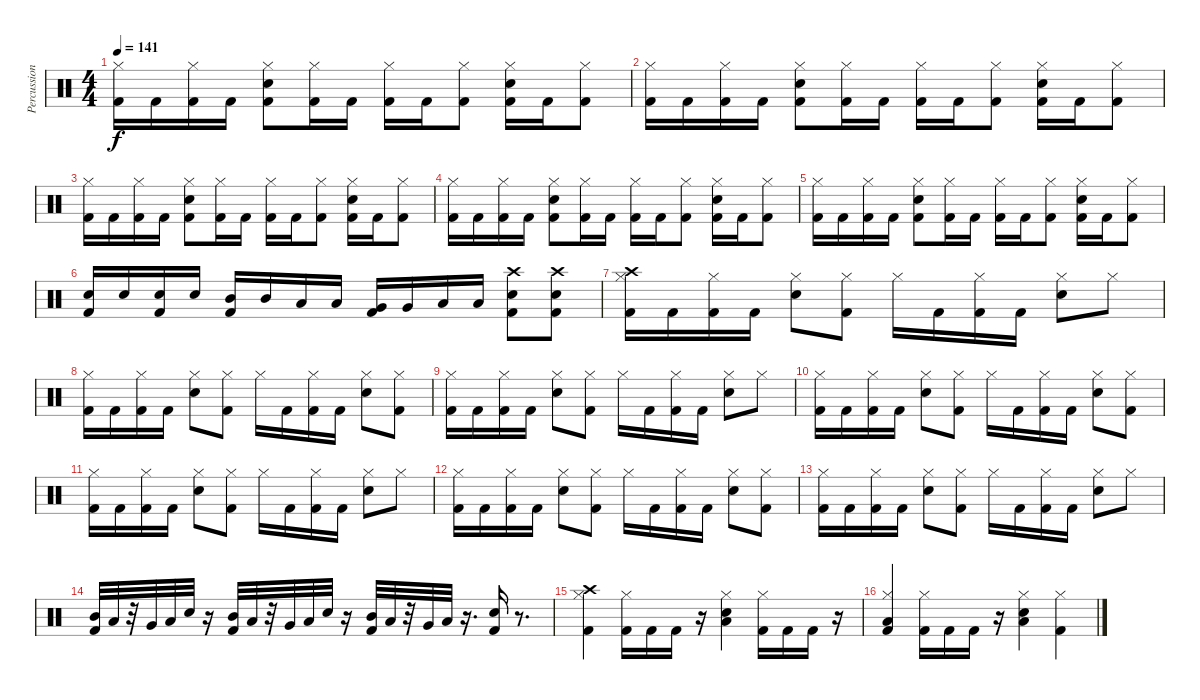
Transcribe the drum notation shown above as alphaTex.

\track ("Percussion" "Percussion") {instrument percussion}
\staff {score}
\articulation defaults
\ts (4 4)
\tempo 141
\clef neutral
\ks c
("Kick (hit) 2" "Hi-Hat (closed)").16{dy f} "Kick (hit) 2".16 ("Kick (hit) 2" "Hi-Hat (closed)").16 "Kick (hit) 2".16 ("Kick (hit) 2" "Snare (hit) 2" "Hi-Hat (closed)").8 ("Kick (hit) 2" "Hi-Hat (closed)").16 "Kick (hit) 2".16 ("Kick (hit) 2" "Hi-Hat (closed)").16 "Kick (hit) 2".16 ("Kick (hit) 2" "Hi-Hat (closed)").8 ("Kick (hit) 2" "Snare (hit) 2" "Hi-Hat (closed)").16 "Kick (hit) 2".16 ("Kick (hit) 2" "Hi-Hat (closed)").8 |
("Kick (hit) 2" "Hi-Hat (closed)").16 "Kick (hit) 2".16 ("Kick (hit) 2" "Hi-Hat (closed)").16 "Kick (hit) 2".16 ("Kick (hit) 2" "Snare (hit) 2" "Hi-Hat (closed)").8 ("Kick (hit) 2" "Hi-Hat (closed)").16 "Kick (hit) 2".16 ("Kick (hit) 2" "Hi-Hat (closed)").16 "Kick (hit) 2".16 ("Kick (hit) 2" "Hi-Hat (closed)").8 ("Kick (hit) 2" "Snare (hit) 2" "Hi-Hat (closed)").16 "Kick (hit) 2".16 ("Kick (hit) 2" "Hi-Hat (closed)").8 |
("Kick (hit) 2" "Hi-Hat (closed)").16 "Kick (hit) 2".16 ("Kick (hit) 2" "Hi-Hat (closed)").16 "Kick (hit) 2".16 ("Kick (hit) 2" "Snare (hit) 2" "Hi-Hat (closed)").8 ("Kick (hit) 2" "Hi-Hat (closed)").16 "Kick (hit) 2".16 ("Kick (hit) 2" "Hi-Hat (closed)").16 "Kick (hit) 2".16 ("Kick (hit) 2" "Hi-Hat (closed)").8 ("Kick (hit) 2" "Snare (hit) 2" "Hi-Hat (closed)").16 "Kick (hit) 2".16 ("Kick (hit) 2" "Hi-Hat (closed)").8 |
("Kick (hit) 2" "Hi-Hat (closed)").16 "Kick (hit) 2".16 ("Kick (hit) 2" "Hi-Hat (closed)").16 "Kick (hit) 2".16 ("Kick (hit) 2" "Snare (hit) 2" "Hi-Hat (closed)").8 ("Kick (hit) 2" "Hi-Hat (closed)").16 "Kick (hit) 2".16 ("Kick (hit) 2" "Hi-Hat (closed)").16 "Kick (hit) 2".16 ("Kick (hit) 2" "Hi-Hat (closed)").8 ("Kick (hit) 2" "Snare (hit) 2" "Hi-Hat (closed)").16 "Kick (hit) 2".16 ("Kick (hit) 2" "Hi-Hat (closed)").8 |
("Kick (hit) 2" "Hi-Hat (closed)").16 "Kick (hit) 2".16 ("Kick (hit) 2" "Hi-Hat (closed)").16 "Kick (hit) 2".16 ("Kick (hit) 2" "Snare (hit) 2" "Hi-Hat (closed)").8 ("Kick (hit) 2" "Hi-Hat (closed)").16 "Kick (hit) 2".16 ("Kick (hit) 2" "Hi-Hat (closed)").16 "Kick (hit) 2".16 ("Kick (hit) 2" "Hi-Hat (closed)").8 ("Kick (hit) 2" "Snare (hit) 2" "Hi-Hat (closed)").16 "Kick (hit) 2".16 ("Kick (hit) 2" "Hi-Hat (closed)").8 |
("Kick (hit) 2" "Snare (hit) 2").16 "Snare (hit) 2".16 ("Kick (hit) 2" "Snare (hit) 2").16 "Snare (hit) 2".16 ("Kick (hit) 2" "Mid Tom (hit)").16 "Mid Tom (hit)".16 "Low Tom (hit)".16 "Low Tom (hit)".16 ("Kick (hit) 2" "Very Low Tom (hit)").16 "Very Low Tom (hit)".16 "Low Floor Tom (hit)".16 "Low Floor Tom (hit)".16 ("Kick (hit) 2" "Snare (hit) 2" "Crash high (hit)").8 ("Kick (hit) 2" "Snare (hit) 2" "Crash high (hit)").8 |
("Kick (hit) 2" "Hi-Hat (closed)" "Crash high (hit)").16 "Kick (hit) 2".16 ("Kick (hit) 2" "Hi-Hat (closed)").16 "Kick (hit) 2".16 ("Snare (hit) 2" "Hi-Hat (closed)").8 ("Kick (hit) 2" "Hi-Hat (closed)").8 "Hi-Hat (closed)".16 "Kick (hit) 2".16 ("Kick (hit) 2" "Hi-Hat (closed)").16 "Kick (hit) 2".16 ("Snare (hit) 2" "Hi-Hat (closed)").8 "Hi-Hat (closed)".8 |
("Kick (hit) 2" "Hi-Hat (closed)").16 "Kick (hit) 2".16 ("Kick (hit) 2" "Hi-Hat (closed)").16 "Kick (hit) 2".16 ("Snare (hit) 2" "Hi-Hat (closed)").8 ("Kick (hit) 2" "Hi-Hat (closed)").8 "Hi-Hat (closed)".16 "Kick (hit) 2".16 ("Kick (hit) 2" "Hi-Hat (closed)").16 "Kick (hit) 2".16 ("Snare (hit) 2" "Hi-Hat (closed)").8 ("Kick (hit) 2" "Hi-Hat (closed)").8 |
("Kick (hit) 2" "Hi-Hat (closed)").16 "Kick (hit) 2".16 ("Kick (hit) 2" "Hi-Hat (closed)").16 "Kick (hit) 2".16 ("Snare (hit) 2" "Hi-Hat (closed)").8 ("Kick (hit) 2" "Hi-Hat (closed)").8 "Hi-Hat (closed)".16 "Kick (hit) 2".16 ("Kick (hit) 2" "Hi-Hat (closed)").16 "Kick (hit) 2".16 ("Snare (hit) 2" "Hi-Hat (closed)").8 "Hi-Hat (closed)".8 |
("Kick (hit) 2" "Hi-Hat (closed)").16 "Kick (hit) 2".16 ("Kick (hit) 2" "Hi-Hat (closed)").16 "Kick (hit) 2".16 ("Snare (hit) 2" "Hi-Hat (closed)").8 ("Kick (hit) 2" "Hi-Hat (closed)").8 "Hi-Hat (closed)".16 "Kick (hit) 2".16 ("Kick (hit) 2" "Hi-Hat (closed)").16 "Kick (hit) 2".16 ("Snare (hit) 2" "Hi-Hat (closed)").8 ("Kick (hit) 2" "Hi-Hat (closed)").8 |
("Kick (hit) 2" "Hi-Hat (closed)").16 "Kick (hit) 2".16 ("Kick (hit) 2" "Hi-Hat (closed)").16 "Kick (hit) 2".16 ("Snare (hit) 2" "Hi-Hat (closed)").8 ("Kick (hit) 2" "Hi-Hat (closed)").8 "Hi-Hat (closed)".16 "Kick (hit) 2".16 ("Kick (hit) 2" "Hi-Hat (closed)").16 "Kick (hit) 2".16 ("Snare (hit) 2" "Hi-Hat (closed)").8 "Hi-Hat (closed)".8 |
("Kick (hit) 2" "Hi-Hat (closed)").16 "Kick (hit) 2".16 ("Kick (hit) 2" "Hi-Hat (closed)").16 "Kick (hit) 2".16 ("Snare (hit) 2" "Hi-Hat (closed)").8 ("Kick (hit) 2" "Hi-Hat (closed)").8 "Hi-Hat (closed)".16 "Kick (hit) 2".16 ("Kick (hit) 2" "Hi-Hat (closed)").16 "Kick (hit) 2".16 ("Snare (hit) 2" "Hi-Hat (closed)").8 ("Kick (hit) 2" "Hi-Hat (closed)").8 |
("Kick (hit) 2" "Hi-Hat (closed)").16 "Kick (hit) 2".16 ("Kick (hit) 2" "Hi-Hat (closed)").16 "Kick (hit) 2".16 ("Snare (hit) 2" "Hi-Hat (closed)").8 ("Kick (hit) 2" "Hi-Hat (closed)").8 "Hi-Hat (closed)".16 "Kick (hit) 2".16 ("Kick (hit) 2" "Hi-Hat (closed)").16 "Kick (hit) 2".16 ("Snare (hit) 2" "Hi-Hat (closed)").8 "Hi-Hat (closed)".8 |
("Kick (hit) 2" "Mid Tom (hit)").32 "Low Tom (hit)".32 r.32 "Very Low Tom (hit)".32 "Low Floor Tom (hit)".32 "Snare (hit) 2".32 r.16 ("Kick (hit) 2" "Mid Tom (hit)").32 "Low Tom (hit)".32 r.32 "Very Low Tom (hit)".32 "Low Floor Tom (hit)".32 "Snare (hit) 2".32 r.16 ("Kick (hit) 2" "Mid Tom (hit)").32 "Low Tom (hit)".32 r.32 "Very Low Tom (hit)".32 "Low Floor Tom (hit)".32 r.16{d} ("Kick (hit) 2" "Snare (hit) 2").16 r.8{d} |
("Kick (hit) 2" "Hi-Hat (closed)" "Crash high (hit)").4 ("Kick (hit) 2" "Hi-Hat (closed)").16 "Kick (hit) 2".16 "Kick (hit) 2".16 r.16 ("Snare (hit) 2" "Low Floor Tom (hit)" "Hi-Hat (closed)").4 ("Kick (hit) 2" "Hi-Hat (closed)").16 "Kick (hit) 2".16 "Kick (hit) 2".16 r.16 |
("Kick (hit) 2" "Low Floor Tom (hit)" "Hi-Hat (closed)").4 ("Kick (hit) 2" "Hi-Hat (closed)").16 "Kick (hit) 2".16 "Kick (hit) 2".16 r.16 ("Snare (hit) 2" "Low Floor Tom (hit)" "Hi-Hat (closed)").4 ("Kick (hit) 2" "Hi-Hat (closed)").4
